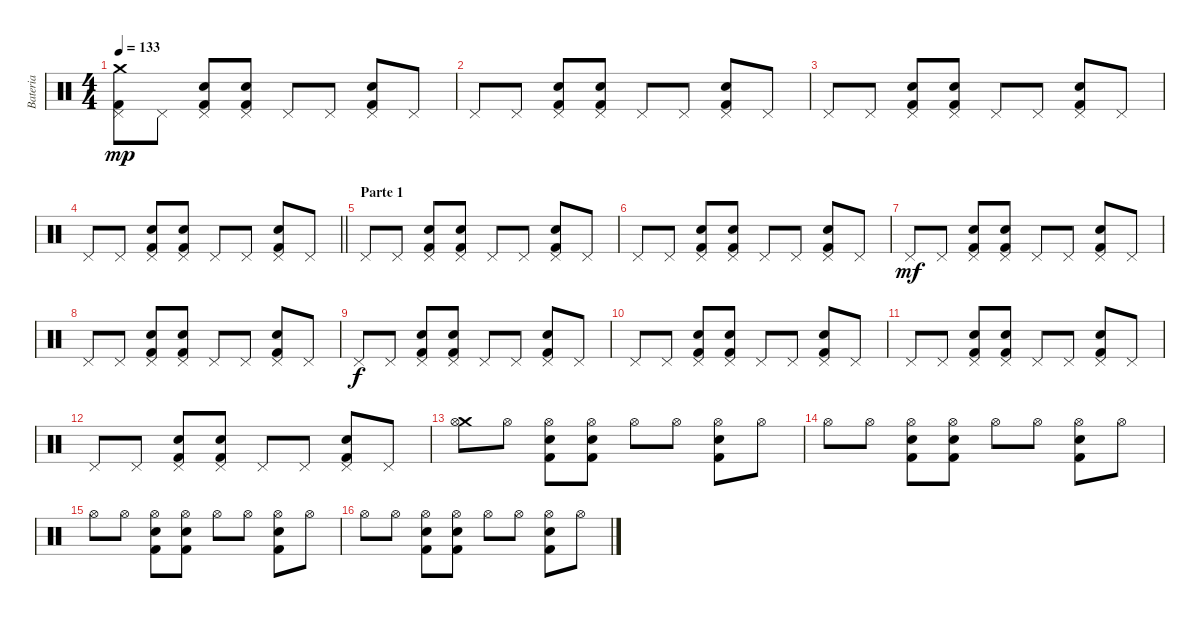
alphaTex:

\track ("Bateria" "Bateria") {instrument percussion}
\staff {score}
\articulation defaults
\ts (4 4)
\tempo 133
\clef neutral
\ks c
("Crash medium (hit)" "Kick (hit) 2" "Pedal Hi-Hat (hit)").8{dy mp} "Pedal Hi-Hat (hit)".8 ("Kick (hit) 2" "Pedal Hi-Hat (hit)" "Electric Snare (hit)").8 ("Kick (hit) 2" "Pedal Hi-Hat (hit)" "Electric Snare (hit)").8 "Pedal Hi-Hat (hit)".8 "Pedal Hi-Hat (hit)".8 ("Kick (hit) 2" "Pedal Hi-Hat (hit)" "Electric Snare (hit)").8 "Pedal Hi-Hat (hit)".8 |
"Pedal Hi-Hat (hit)".8 "Pedal Hi-Hat (hit)".8 ("Kick (hit) 2" "Pedal Hi-Hat (hit)" "Electric Snare (hit)").8 ("Kick (hit) 2" "Pedal Hi-Hat (hit)" "Electric Snare (hit)").8 "Pedal Hi-Hat (hit)".8 "Pedal Hi-Hat (hit)".8 ("Kick (hit) 2" "Pedal Hi-Hat (hit)" "Electric Snare (hit)").8 "Pedal Hi-Hat (hit)".8 |
"Pedal Hi-Hat (hit)".8 "Pedal Hi-Hat (hit)".8 ("Kick (hit) 2" "Pedal Hi-Hat (hit)" "Electric Snare (hit)").8 ("Kick (hit) 2" "Pedal Hi-Hat (hit)" "Electric Snare (hit)").8 "Pedal Hi-Hat (hit)".8 "Pedal Hi-Hat (hit)".8 ("Kick (hit) 2" "Pedal Hi-Hat (hit)" "Electric Snare (hit)").8 "Pedal Hi-Hat (hit)".8 |
\barLineRight lightlight "Pedal Hi-Hat (hit)".8 "Pedal Hi-Hat (hit)".8
("Kick (hit) 2" "Pedal Hi-Hat (hit)" "Electric Snare (hit)").8 ("Kick (hit) 2" "Pedal Hi-Hat (hit)" "Electric Snare (hit)").8 "Pedal Hi-Hat (hit)".8 "Pedal Hi-Hat (hit)".8 ("Kick (hit) 2" "Pedal Hi-Hat (hit)" "Electric Snare (hit)").8 "Pedal Hi-Hat (hit)".8 |
\section ("" "Parte 1")
"Pedal Hi-Hat (hit)".8 "Pedal Hi-Hat (hit)".8 ("Kick (hit) 2" "Pedal Hi-Hat (hit)" "Electric Snare (hit)").8 ("Kick (hit) 2" "Pedal Hi-Hat (hit)" "Electric Snare (hit)").8 "Pedal Hi-Hat (hit)".8 "Pedal Hi-Hat (hit)".8 ("Kick (hit) 2" "Pedal Hi-Hat (hit)" "Electric Snare (hit)").8 "Pedal Hi-Hat (hit)".8 |
"Pedal Hi-Hat (hit)".8 "Pedal Hi-Hat (hit)".8 ("Kick (hit) 2" "Pedal Hi-Hat (hit)" "Electric Snare (hit)").8 ("Kick (hit) 2" "Pedal Hi-Hat (hit)" "Electric Snare (hit)").8 "Pedal Hi-Hat (hit)".8 "Pedal Hi-Hat (hit)".8 ("Kick (hit) 2" "Pedal Hi-Hat (hit)" "Electric Snare (hit)").8 "Pedal Hi-Hat (hit)".8 |
"Pedal Hi-Hat (hit)".8{dy mf} "Pedal Hi-Hat (hit)".8 ("Kick (hit) 2" "Pedal Hi-Hat (hit)" "Electric Snare (hit)").8 ("Kick (hit) 2" "Pedal Hi-Hat (hit)" "Electric Snare (hit)").8 "Pedal Hi-Hat (hit)".8 "Pedal Hi-Hat (hit)".8 ("Kick (hit) 2" "Pedal Hi-Hat (hit)" "Electric Snare (hit)").8 "Pedal Hi-Hat (hit)".8 |
"Pedal Hi-Hat (hit)".8 "Pedal Hi-Hat (hit)".8 ("Kick (hit) 2" "Pedal Hi-Hat (hit)" "Electric Snare (hit)").8 ("Kick (hit) 2" "Pedal Hi-Hat (hit)" "Electric Snare (hit)").8 "Pedal Hi-Hat (hit)".8 "Pedal Hi-Hat (hit)".8 ("Kick (hit) 2" "Pedal Hi-Hat (hit)" "Electric Snare (hit)").8 "Pedal Hi-Hat (hit)".8 |
"Pedal Hi-Hat (hit)".8{dy f} "Pedal Hi-Hat (hit)".8 ("Kick (hit) 2" "Pedal Hi-Hat (hit)" "Electric Snare (hit)").8 ("Kick (hit) 2" "Pedal Hi-Hat (hit)" "Electric Snare (hit)").8 "Pedal Hi-Hat (hit)".8 "Pedal Hi-Hat (hit)".8 ("Kick (hit) 2" "Pedal Hi-Hat (hit)" "Electric Snare (hit)").8 "Pedal Hi-Hat (hit)".8 |
"Pedal Hi-Hat (hit)".8 "Pedal Hi-Hat (hit)".8 ("Kick (hit) 2" "Pedal Hi-Hat (hit)" "Electric Snare (hit)").8 ("Kick (hit) 2" "Pedal Hi-Hat (hit)" "Electric Snare (hit)").8 "Pedal Hi-Hat (hit)".8 "Pedal Hi-Hat (hit)".8 ("Kick (hit) 2" "Pedal Hi-Hat (hit)" "Electric Snare (hit)").8 "Pedal Hi-Hat (hit)".8 |
"Pedal Hi-Hat (hit)".8 "Pedal Hi-Hat (hit)".8 ("Kick (hit) 2" "Pedal Hi-Hat (hit)" "Electric Snare (hit)").8 ("Kick (hit) 2" "Pedal Hi-Hat (hit)" "Electric Snare (hit)").8 "Pedal Hi-Hat (hit)".8 "Pedal Hi-Hat (hit)".8 ("Kick (hit) 2" "Pedal Hi-Hat (hit)" "Electric Snare (hit)").8 "Pedal Hi-Hat (hit)".8 |
"Pedal Hi-Hat (hit)".8 "Pedal Hi-Hat (hit)".8 ("Kick (hit) 2" "Pedal Hi-Hat (hit)" "Electric Snare (hit)").8 ("Kick (hit) 2" "Pedal Hi-Hat (hit)" "Electric Snare (hit)").8 "Pedal Hi-Hat (hit)".8 "Pedal Hi-Hat (hit)".8 ("Kick (hit) 2" "Pedal Hi-Hat (hit)" "Electric Snare (hit)").8 "Pedal Hi-Hat (hit)".8 |
("Crash medium (hit)" "Hi-Hat (open)").8 "Hi-Hat (open)".8 ("Kick (hit) 2" "Hi-Hat (open)" "Electric Snare (hit)").8 ("Kick (hit) 2" "Hi-Hat (open)" "Electric Snare (hit)").8 "Hi-Hat (open)".8 "Hi-Hat (open)".8 ("Kick (hit) 2" "Hi-Hat (open)" "Electric Snare (hit)").8 "Hi-Hat (open)".8 |
"Hi-Hat (open)".8 "Hi-Hat (open)".8 ("Kick (hit) 2" "Hi-Hat (open)" "Electric Snare (hit)").8 ("Kick (hit) 2" "Hi-Hat (open)" "Electric Snare (hit)").8 "Hi-Hat (open)".8 "Hi-Hat (open)".8 ("Kick (hit) 2" "Hi-Hat (open)" "Electric Snare (hit)").8 "Hi-Hat (open)".8 |
"Hi-Hat (open)".8 "Hi-Hat (open)".8 ("Kick (hit) 2" "Hi-Hat (open)" "Electric Snare (hit)").8 ("Kick (hit) 2" "Hi-Hat (open)" "Electric Snare (hit)").8 "Hi-Hat (open)".8 "Hi-Hat (open)".8 ("Kick (hit) 2" "Hi-Hat (open)" "Electric Snare (hit)").8 "Hi-Hat (open)".8 |
"Hi-Hat (open)".8 "Hi-Hat (open)".8 ("Kick (hit) 2" "Hi-Hat (open)" "Electric Snare (hit)").8 ("Kick (hit) 2" "Hi-Hat (open)" "Electric Snare (hit)").8 "Hi-Hat (open)".8 "Hi-Hat (open)".8 ("Kick (hit) 2" "Hi-Hat (open)" "Electric Snare (hit)").8 "Hi-Hat (open)".8
